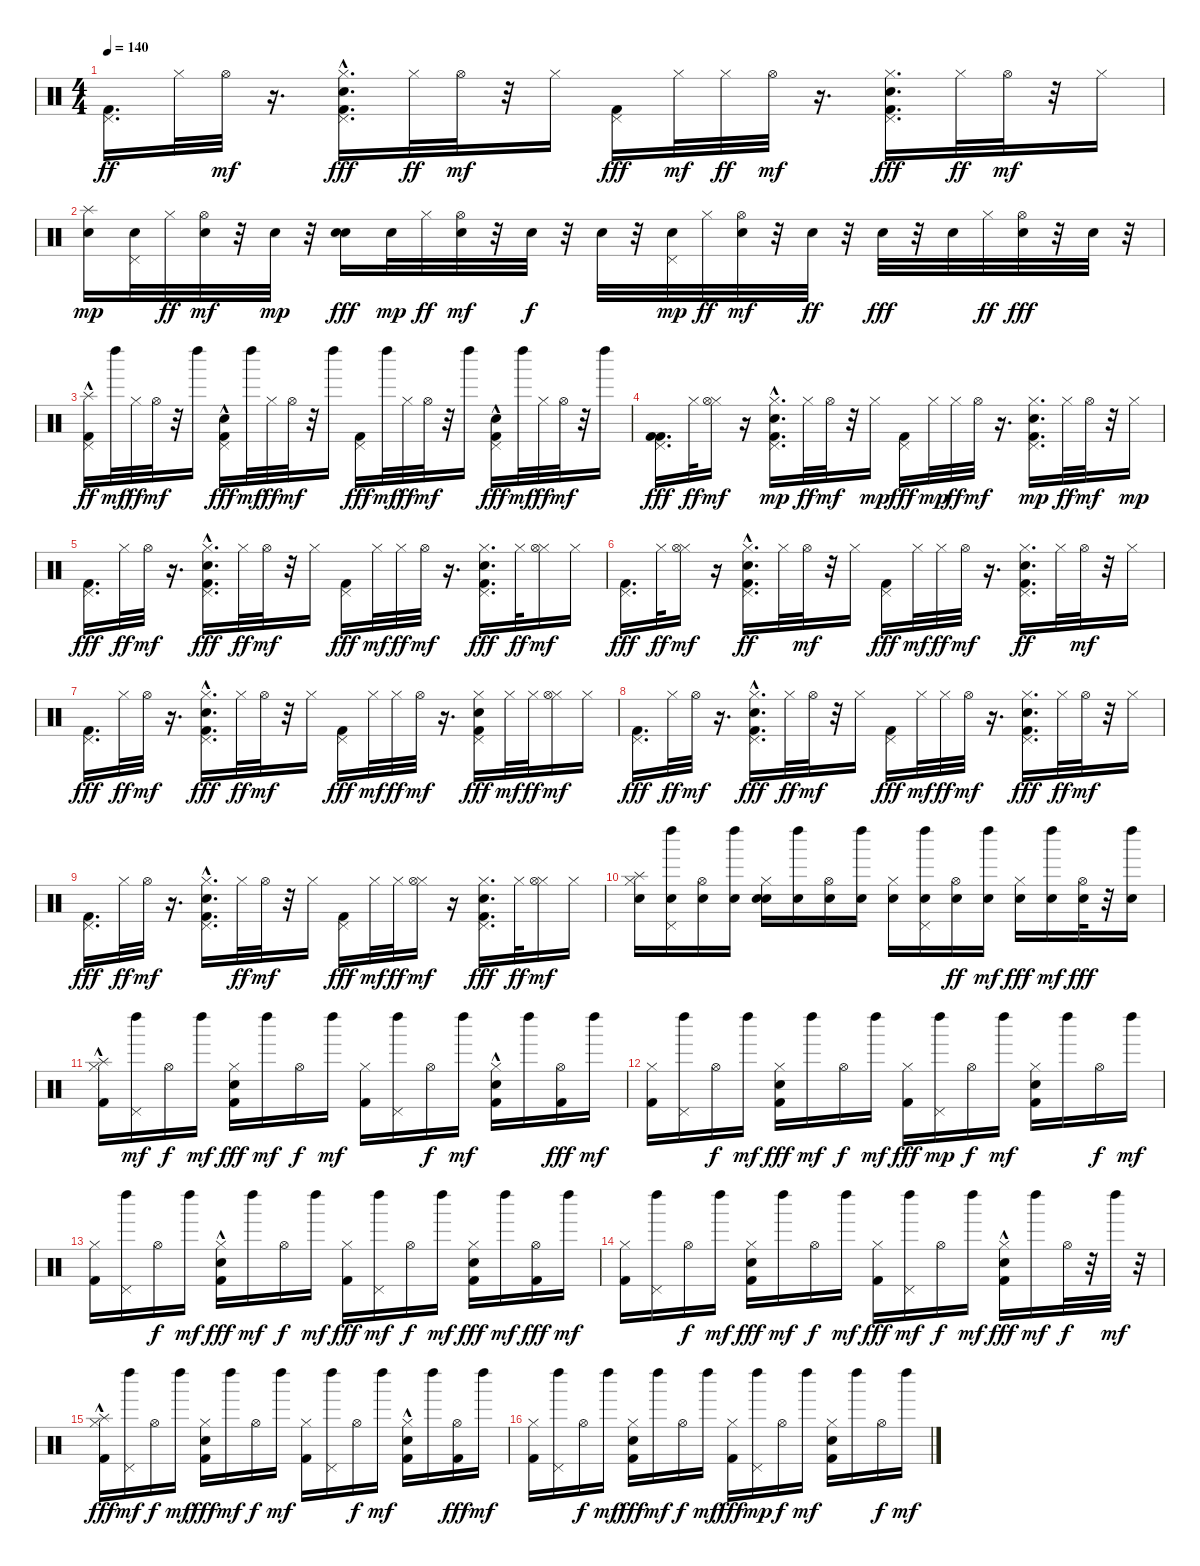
\track "" {instrument percussion}
\staff {score}
\articulation defaults
\ts (4 4)
\tempo 140
\clef neutral
\ks c
("Kick (hit) 2" "Pedal Hi-Hat (hit)").16{d dy ff} "Hi-Hat (closed)".32 "Hi-Hat (open)".32{dy mf} r.16{d} ("Pedal Hi-Hat (hit)" "Hand Clap (hit)"{hac} "Hi-Hat (closed)" "Kick (hit) 2").16{d dy fff} "Hi-Hat (closed)".32{dy ff} "Hi-Hat (open)".32{dy mf} r.32 "Hi-Hat (closed)".16 ("Pedal Hi-Hat (hit)" "Kick (hit) 2").16{dy fff} "Hi-Hat (closed)".32{dy mf} "Hi-Hat (closed)".32{dy ff} "Hi-Hat (open)".32{dy mf} r.16{d} ("Hand Clap (hit)" "Hi-Hat (closed)" "Pedal Hi-Hat (hit)" "Kick (hit) 2").16{d dy fff} "Hi-Hat (closed)".32{dy ff} "Hi-Hat (open)".32{dy mf} r.32 "Hi-Hat (closed)".16 |
("Splash (hit)" "Electric Snare (hit)").16{dy mp} ("Pedal Hi-Hat (hit)" "Electric Snare (hit)").32 "Hi-Hat (closed)".32{dy ff} ("Hi-Hat (open)" "Electric Snare (hit)").32{dy mf} r.32 "Electric Snare (hit)".32{dy mp} r.32 ("Electric Snare (hit)" "Hand Clap (hit)").16{dy fff} "Electric Snare (hit)".32{dy mp} "Hi-Hat (closed)".32{dy ff} ("Hi-Hat (open)" "Electric Snare (hit)").32{dy mf} r.32 "Electric Snare (hit)".32{dy f} r.32 "Electric Snare (hit)".32 r.32 ("Electric Snare (hit)" "Pedal Hi-Hat (hit)").32{dy mp} "Hi-Hat (closed)".32{dy ff} ("Electric Snare (hit)" "Hi-Hat (open)").32{dy mf} r.32 "Electric Snare (hit)".32{dy ff} r.32 "Electric Snare (hit)".32{dy fff} r.32 "Electric Snare (hit)".32 "Hi-Hat (closed)".32{dy ff} ("Hi-Hat (open)" "Electric Snare (hit)").32{dy fff} r.32 "Electric Snare (hit)".32 r.32 |
("Splash (hit)"{hac} "Kick (hit) 2" "Pedal Hi-Hat (hit)").16{dy ff} "Left Maraca (hit)".32{dy mf} "Hi-Hat (closed)".32{dy ff} "Hi-Hat (open)".32{dy mf} r.32 "Left Maraca (hit)".16 ("Pedal Hi-Hat (hit)" "Hand Clap (hit)"{hac} "Kick (hit) 2").16{dy fff} "Left Maraca (hit)".32{dy mf} "Hi-Hat (closed)".32{dy ff} "Hi-Hat (open)".32{dy mf} r.32 "Left Maraca (hit)".16 ("Pedal Hi-Hat (hit)" "Kick (hit) 2").16{dy fff} "Left Maraca (hit)".32{dy mf} "Hi-Hat (closed)".32{dy ff} "Hi-Hat (open)".32{dy mf} r.32 "Left Maraca (hit)".16 ("Pedal Hi-Hat (hit)" "Hand Clap (hit)"{hac} "Kick (hit) 2").16{dy fff} "Left Maraca (hit)".32{dy mf} "Hi-Hat (closed)".32{dy ff} "Hi-Hat (open)".32{dy mf} r.32 "Left Maraca (hit)".16 |
("Kick (hit) 2" "Pedal Hi-Hat (hit)" "Kick (hit) 2").16{d dy fff} "Hi-Hat (closed)".32{dy ff} ("Hi-Hat (closed)" "Hi-Hat (open)").16{dy mf} r.16 ("Pedal Hi-Hat (hit)" "Kick (hit) 2" "Hi-Hat (closed)" "Hand Clap (hit)"{hac}).16{d dy mp} "Hi-Hat (closed)".32{dy ff} "Hi-Hat (open)".32{dy mf} r.32 "Hi-Hat (closed)".16{dy mp} ("Pedal Hi-Hat (hit)" "Kick (hit) 2").16{dy fff} "Hi-Hat (closed)".32{dy mp} "Hi-Hat (closed)".32{dy ff} "Hi-Hat (open)".32{dy mf} r.16{d} ("Kick (hit) 2" "Pedal Hi-Hat (hit)" "Hand Clap (hit)" "Hi-Hat (closed)").16{d dy mp} "Hi-Hat (closed)".32{dy ff} "Hi-Hat (open)".32{dy mf} r.32 "Hi-Hat (closed)".16{dy mp} |
("Pedal Hi-Hat (hit)" "Kick (hit) 2").16{d dy fff} "Hi-Hat (closed)".32{dy ff} "Hi-Hat (open)".32{dy mf} r.16{d} ("Hi-Hat (closed)" "Hand Clap (hit)"{hac} "Pedal Hi-Hat (hit)" "Kick (hit) 2").16{d dy fff} "Hi-Hat (closed)".32{dy ff} "Hi-Hat (open)".32{dy mf} r.32 "Hi-Hat (closed)".16 ("Pedal Hi-Hat (hit)" "Kick (hit) 2").16{dy fff} "Hi-Hat (closed)".32{dy mf} "Hi-Hat (closed)".32{dy ff} "Hi-Hat (open)".32{dy mf} r.16{d} ("Hi-Hat (closed)" "Hand Clap (hit)" "Pedal Hi-Hat (hit)" "Kick (hit) 2").16{d dy fff} "Hi-Hat (closed)".32{dy ff} ("Hi-Hat (closed)" "Hi-Hat (open)").16{dy mf} "Hi-Hat (closed)".16 |
("Pedal Hi-Hat (hit)" "Kick (hit) 2").16{d dy fff} "Hi-Hat (closed)".32{dy ff} ("Hi-Hat (closed)" "Hi-Hat (open)").16{dy mf} r.16 ("Hi-Hat (closed)" "Kick (hit) 2" "Pedal Hi-Hat (hit)" "Hand Clap (hit)"{hac}).16{d dy ff} "Hi-Hat (closed)".32 "Hi-Hat (open)".32{dy mf} r.32 "Hi-Hat (closed)".16 ("Pedal Hi-Hat (hit)" "Kick (hit) 2").16{dy fff} "Hi-Hat (closed)".32{dy mf} "Hi-Hat (closed)".32{dy ff} "Hi-Hat (open)".32{dy mf} r.16{d} ("Hi-Hat (closed)" "Kick (hit) 2" "Pedal Hi-Hat (hit)" "Hand Clap (hit)").16{d dy ff} "Hi-Hat (closed)".32 "Hi-Hat (open)".32{dy mf} r.32 "Hi-Hat (closed)".16 |
("Pedal Hi-Hat (hit)" "Kick (hit) 2").16{d dy fff} "Hi-Hat (closed)".32{dy ff} "Hi-Hat (open)".32{dy mf} r.16{d} ("Hi-Hat (closed)" "Hand Clap (hit)"{hac} "Pedal Hi-Hat (hit)" "Kick (hit) 2").16{d dy fff} "Hi-Hat (closed)".32{dy ff} "Hi-Hat (open)".32{dy mf} r.32 "Hi-Hat (closed)".16 ("Pedal Hi-Hat (hit)" "Kick (hit) 2").16{dy fff} "Hi-Hat (closed)".32{dy mf} "Hi-Hat (closed)".32{dy ff} "Hi-Hat (open)".32{dy mf} r.16{d} ("Hi-Hat (closed)" "Pedal Hi-Hat (hit)" "Kick (hit) 2" "Hand Clap (hit)").16{dy fff} "Hi-Hat (closed)".32{dy mf} "Hi-Hat (closed)".32{dy ff} ("Hi-Hat (closed)" "Hi-Hat (open)").16{dy mf} "Hi-Hat (closed)".16 |
("Pedal Hi-Hat (hit)" "Kick (hit) 2").16{d dy fff} "Hi-Hat (closed)".32{dy ff} "Hi-Hat (open)".32{dy mf} r.16{d} ("Pedal Hi-Hat (hit)" "Hand Clap (hit)"{hac} "Hi-Hat (closed)" "Kick (hit) 2").16{d dy fff} "Hi-Hat (closed)".32{dy ff} "Hi-Hat (open)".32{dy mf} r.32 "Hi-Hat (closed)".16 ("Pedal Hi-Hat (hit)" "Kick (hit) 2").16{dy fff} "Hi-Hat (closed)".32{dy mf} "Hi-Hat (closed)".32{dy ff} "Hi-Hat (open)".32{dy mf} r.16{d} ("Pedal Hi-Hat (hit)" "Hand Clap (hit)" "Hi-Hat (closed)" "Kick (hit) 2").16{d dy fff} "Hi-Hat (closed)".32{dy ff} "Hi-Hat (open)".32{dy mf} r.32 "Hi-Hat (closed)".16 |
("Pedal Hi-Hat (hit)" "Kick (hit) 2").16{d dy fff} "Hi-Hat (closed)".32{dy ff} "Hi-Hat (open)".32{dy mf} r.16{d} ("Pedal Hi-Hat (hit)" "Kick (hit) 2" "Hi-Hat (closed)" "Hand Clap (hit)"{hac}).16{d} "Hi-Hat (closed)".32{dy ff} "Hi-Hat (open)".32{dy mf} r.32 "Hi-Hat (closed)".16 ("Pedal Hi-Hat (hit)" "Kick (hit) 2").16{dy fff} "Hi-Hat (closed)".32{dy mf} "Hi-Hat (closed)".32{dy ff} ("Hi-Hat (closed)" "Hi-Hat (open)").16{dy mf} r.16 ("Pedal Hi-Hat (hit)" "Hand Clap (hit)" "Hi-Hat (closed)" "Kick (hit) 2").16{d dy fff} "Hi-Hat (closed)".32{dy ff} ("Hi-Hat (closed)" "Hi-Hat (open)").16{dy mf} "Hi-Hat (closed)".16 |
("Splash (hit)" "Electric Snare (hit)" "Hi-Hat (closed)").16 ("Pedal Hi-Hat (hit)" "Electric Snare (hit)" "Left Maraca (hit)").16 ("Electric Snare (hit)" "Hi-Hat (open)").16 ("Electric Snare (hit)" "Left Maraca (hit)").16 ("Hand Clap (hit)" "Hi-Hat (closed)" "Electric Snare (hit)").16 ("Electric Snare (hit)" "Left Maraca (hit)").16 ("Electric Snare (hit)" "Hi-Hat (open)").16 ("Electric Snare (hit)" "Left Maraca (hit)").16 ("Hi-Hat (closed)" "Electric Snare (hit)").16 ("Pedal Hi-Hat (hit)" "Electric Snare (hit)" "Left Maraca (hit)").16 ("Electric Snare (hit)" "Hi-Hat (open)").16{dy ff} ("Electric Snare (hit)" "Left Maraca (hit)").16{dy mf} ("Hi-Hat (closed)" "Electric Snare (hit)").16{dy fff} ("Electric Snare (hit)" "Left Maraca (hit)").16{dy mf} ("Electric Snare (hit)" "Hi-Hat (open)").32{dy fff} r.32 ("Left Maraca (hit)" "Electric Snare (hit)").16 |
("Splash (hit)"{hac} "Hi-Hat (closed)" "Kick (hit) 2").16 ("Pedal Hi-Hat (hit)" "Left Maraca (hit)").16{dy mf} "Hi-Hat (open)".16{dy f} "Left Maraca (hit)".16{dy mf} ("Kick (hit) 2" "Hi-Hat (closed)" "Hand Clap (hit)").16{dy fff} "Left Maraca (hit)".16{dy mf} "Hi-Hat (open)".16{dy f} "Left Maraca (hit)".16{dy mf} ("Kick (hit) 2" "Hi-Hat (closed)").16 ("Pedal Hi-Hat (hit)" "Left Maraca (hit)").16 "Hi-Hat (open)".16{dy f} "Left Maraca (hit)".16{dy mf} ("Hand Clap (hit)"{hac} "Kick (hit) 2" "Hi-Hat (closed)").16 "Left Maraca (hit)".16 ("Kick (hit) 2" "Hi-Hat (open)").16{dy fff} "Left Maraca (hit)".16{dy mf} |
("Kick (hit) 2" "Hi-Hat (closed)").16 ("Pedal Hi-Hat (hit)" "Left Maraca (hit)").16 "Hi-Hat (open)".16{dy f} "Left Maraca (hit)".16{dy mf} ("Hand Clap (hit)" "Hi-Hat (closed)" "Kick (hit) 2").16{dy fff} "Left Maraca (hit)".16{dy mf} "Hi-Hat (open)".16{dy f} "Left Maraca (hit)".16{dy mf} ("Hi-Hat (closed)" "Kick (hit) 2").16{dy fff} ("Left Maraca (hit)" "Pedal Hi-Hat (hit)").16{dy mp} "Hi-Hat (open)".16{dy f} "Left Maraca (hit)".16{dy mf} ("Hand Clap (hit)" "Kick (hit) 2" "Hi-Hat (closed)").16 "Left Maraca (hit)".16 "Hi-Hat (open)".16{dy f} "Left Maraca (hit)".16{dy mf} |
("Kick (hit) 2" "Hi-Hat (closed)").16 ("Pedal Hi-Hat (hit)" "Left Maraca (hit)").16 "Hi-Hat (open)".16{dy f} "Left Maraca (hit)".16{dy mf} ("Hand Clap (hit)" "Hi-Hat (closed)" "Kick (hit) 2"{hac}).16{dy fff} "Left Maraca (hit)".16{dy mf} "Hi-Hat (open)".16{dy f} "Left Maraca (hit)".16{dy mf} ("Hi-Hat (closed)" "Kick (hit) 2").16{dy fff} ("Pedal Hi-Hat (hit)" "Left Maraca (hit)").16{dy mf} "Hi-Hat (open)".16{dy f} "Left Maraca (hit)".16{dy mf} ("Hi-Hat (closed)" "Kick (hit) 2" "Hand Clap (hit)").16{dy fff} "Left Maraca (hit)".16{dy mf} ("Kick (hit) 2" "Hi-Hat (open)").16{dy fff} "Left Maraca (hit)".16{dy mf} |
("Kick (hit) 2" "Hi-Hat (closed)").16 ("Pedal Hi-Hat (hit)" "Left Maraca (hit)").16 "Hi-Hat (open)".16{dy f} "Left Maraca (hit)".16{dy mf} ("Hand Clap (hit)" "Hi-Hat (closed)" "Kick (hit) 2").16{dy fff} "Left Maraca (hit)".16{dy mf} "Hi-Hat (open)".16{dy f} "Left Maraca (hit)".16{dy mf} ("Hi-Hat (closed)" "Kick (hit) 2").16{dy fff} ("Pedal Hi-Hat (hit)" "Left Maraca (hit)").16{dy mf} "Hi-Hat (open)".16{dy f} "Left Maraca (hit)".16{dy mf} ("Hand Clap (hit)" "Hi-Hat (closed)" "Kick (hit) 2"{hac}).16{dy fff} "Left Maraca (hit)".16{dy mf} "Hi-Hat (open)".32{dy f} r.32 "Left Maraca (hit)".32{dy mf} r.32 |
("Splash (hit)"{hac} "Hi-Hat (closed)" "Kick (hit) 2").16{dy fff} ("Pedal Hi-Hat (hit)" "Left Maraca (hit)").16{dy mf} "Hi-Hat (open)".16{dy f} "Left Maraca (hit)".16{dy mf} ("Kick (hit) 2" "Hi-Hat (closed)" "Hand Clap (hit)").16{dy fff} "Left Maraca (hit)".16{dy mf} "Hi-Hat (open)".16{dy f} "Left Maraca (hit)".16{dy mf} ("Kick (hit) 2" "Hi-Hat (closed)").16 ("Pedal Hi-Hat (hit)" "Left Maraca (hit)").16 "Hi-Hat (open)".16{dy f} "Left Maraca (hit)".16{dy mf} ("Hand Clap (hit)"{hac} "Kick (hit) 2" "Hi-Hat (closed)").16 "Left Maraca (hit)".16 ("Kick (hit) 2" "Hi-Hat (open)").16{dy fff} "Left Maraca (hit)".16{dy mf} |
("Kick (hit) 2" "Hi-Hat (closed)").16 ("Pedal Hi-Hat (hit)" "Left Maraca (hit)").16 "Hi-Hat (open)".16{dy f} "Left Maraca (hit)".16{dy mf} ("Hand Clap (hit)" "Hi-Hat (closed)" "Kick (hit) 2").16{dy fff} "Left Maraca (hit)".16{dy mf} "Hi-Hat (open)".16{dy f} "Left Maraca (hit)".16{dy mf} ("Hi-Hat (closed)" "Kick (hit) 2").16{dy fff} ("Left Maraca (hit)" "Pedal Hi-Hat (hit)").16{dy mp} "Hi-Hat (open)".16{dy f} "Left Maraca (hit)".16{dy mf} ("Hand Clap (hit)" "Kick (hit) 2" "Hi-Hat (closed)").16 "Left Maraca (hit)".16 "Hi-Hat (open)".16{dy f} "Left Maraca (hit)".16{dy mf}
